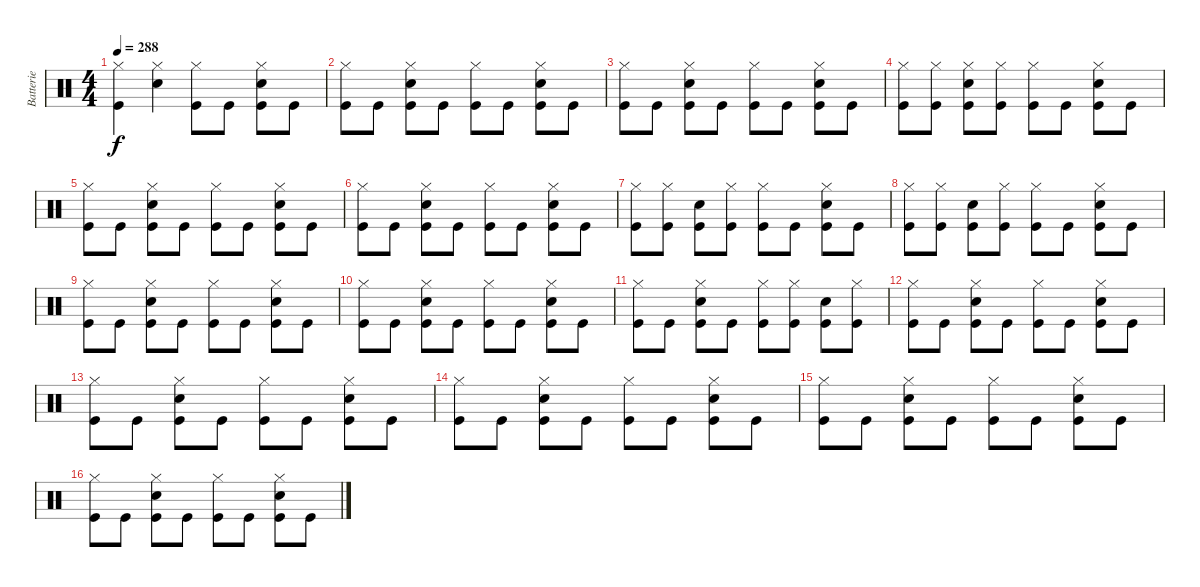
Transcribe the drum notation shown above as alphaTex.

\track ("Batterie" "Batterie") {instrument percussion}
\staff {score}
\articulation defaults
\ts (4 4)
\tempo 288
\clef neutral
\ks c
("Hi-Hat (closed)" "Kick (hit)").4{dy f} ("Hi-Hat (closed)" "Snare (hit) 2").4 ("Hi-Hat (closed)" "Kick (hit)").8 "Kick (hit)".8 ("Hi-Hat (closed)" "Snare (hit) 2" "Kick (hit)").8 "Kick (hit)".8 |
("Hi-Hat (closed)" "Kick (hit)").8 "Kick (hit)".8 ("Hi-Hat (closed)" "Snare (hit) 2" "Kick (hit)").8 "Kick (hit)".8 ("Hi-Hat (closed)" "Kick (hit)").8 "Kick (hit)".8 ("Hi-Hat (closed)" "Snare (hit) 2" "Kick (hit)").8 "Kick (hit)".8 |
("Hi-Hat (closed)" "Kick (hit)").8 "Kick (hit)".8 ("Hi-Hat (closed)" "Snare (hit) 2" "Kick (hit)").8 "Kick (hit)".8 ("Hi-Hat (closed)" "Kick (hit)").8 "Kick (hit)".8 ("Hi-Hat (closed)" "Snare (hit) 2" "Kick (hit)").8 "Kick (hit)".8 |
("Hi-Hat (closed)" "Kick (hit)").8 ("Hi-Hat (closed)" "Kick (hit)").8 ("Hi-Hat (closed)" "Snare (hit) 2" "Kick (hit)").8 ("Hi-Hat (closed)" "Kick (hit)").8 ("Hi-Hat (closed)" "Kick (hit)").8 "Kick (hit)".8 ("Hi-Hat (closed)" "Snare (hit) 2" "Kick (hit)").8 "Kick (hit)".8 |
("Hi-Hat (closed)" "Kick (hit)").8 "Kick (hit)".8 ("Hi-Hat (closed)" "Snare (hit) 2" "Kick (hit)").8 "Kick (hit)".8 ("Hi-Hat (closed)" "Kick (hit)").8 "Kick (hit)".8 ("Hi-Hat (closed)" "Snare (hit) 2" "Kick (hit)").8 "Kick (hit)".8 |
("Hi-Hat (closed)" "Kick (hit)").8 "Kick (hit)".8 ("Hi-Hat (closed)" "Snare (hit) 2" "Kick (hit)").8 "Kick (hit)".8 ("Hi-Hat (closed)" "Kick (hit)").8 "Kick (hit)".8 ("Hi-Hat (closed)" "Snare (hit) 2" "Kick (hit)").8 "Kick (hit)".8 |
("Hi-Hat (closed)" "Kick (hit)").8 ("Hi-Hat (closed)" "Kick (hit)").8 ("Snare (hit) 2" "Kick (hit)").8 ("Hi-Hat (closed)" "Kick (hit)").8 ("Hi-Hat (closed)" "Kick (hit)").8 "Kick (hit)".8 ("Hi-Hat (closed)" "Snare (hit) 2" "Kick (hit)").8 "Kick (hit)".8 |
("Hi-Hat (closed)" "Kick (hit)").8 ("Hi-Hat (closed)" "Kick (hit)").8 ("Snare (hit) 2" "Kick (hit)").8 ("Hi-Hat (closed)" "Kick (hit)").8 ("Hi-Hat (closed)" "Kick (hit)").8 "Kick (hit)".8 ("Hi-Hat (closed)" "Snare (hit) 2" "Kick (hit)").8 "Kick (hit)".8 |
("Hi-Hat (closed)" "Kick (hit)").8 "Kick (hit)".8 ("Hi-Hat (closed)" "Snare (hit) 2" "Kick (hit)").8 "Kick (hit)".8 ("Hi-Hat (closed)" "Kick (hit)").8 "Kick (hit)".8 ("Hi-Hat (closed)" "Snare (hit) 2" "Kick (hit)").8 "Kick (hit)".8 |
("Hi-Hat (closed)" "Kick (hit)").8 "Kick (hit)".8 ("Hi-Hat (closed)" "Snare (hit) 2" "Kick (hit)").8 "Kick (hit)".8 ("Hi-Hat (closed)" "Kick (hit)").8 "Kick (hit)".8 ("Hi-Hat (closed)" "Snare (hit) 2" "Kick (hit)").8 "Kick (hit)".8 |
("Hi-Hat (closed)" "Kick (hit)").8 "Kick (hit)".8 ("Hi-Hat (closed)" "Snare (hit) 2" "Kick (hit)").8 "Kick (hit)".8 ("Hi-Hat (closed)" "Kick (hit)").8 ("Hi-Hat (closed)" "Kick (hit)").8 ("Snare (hit) 2" "Kick (hit)").8 ("Hi-Hat (closed)" "Kick (hit)").8 |
("Hi-Hat (closed)" "Kick (hit)").8 "Kick (hit)".8 ("Hi-Hat (closed)" "Snare (hit) 2" "Kick (hit)").8 "Kick (hit)".8 ("Hi-Hat (closed)" "Kick (hit)").8 "Kick (hit)".8 ("Hi-Hat (closed)" "Snare (hit) 2" "Kick (hit)").8 "Kick (hit)".8 |
("Hi-Hat (closed)" "Kick (hit)").8 "Kick (hit)".8 ("Hi-Hat (closed)" "Snare (hit) 2" "Kick (hit)").8 "Kick (hit)".8 ("Hi-Hat (closed)" "Kick (hit)").8 "Kick (hit)".8 ("Hi-Hat (closed)" "Snare (hit) 2" "Kick (hit)").8 "Kick (hit)".8 |
("Hi-Hat (closed)" "Kick (hit)").8 "Kick (hit)".8 ("Hi-Hat (closed)" "Snare (hit) 2" "Kick (hit)").8 "Kick (hit)".8 ("Hi-Hat (closed)" "Kick (hit)").8 "Kick (hit)".8 ("Hi-Hat (closed)" "Snare (hit) 2" "Kick (hit)").8 "Kick (hit)".8 |
("Hi-Hat (closed)" "Kick (hit)").8 "Kick (hit)".8 ("Hi-Hat (closed)" "Snare (hit) 2" "Kick (hit)").8 "Kick (hit)".8 ("Hi-Hat (closed)" "Kick (hit)").8 "Kick (hit)".8 ("Hi-Hat (closed)" "Snare (hit) 2" "Kick (hit)").8 "Kick (hit)".8 |
("Hi-Hat (closed)" "Kick (hit)").8 "Kick (hit)".8 ("Hi-Hat (closed)" "Snare (hit) 2" "Kick (hit)").8 "Kick (hit)".8 ("Hi-Hat (closed)" "Kick (hit)").8 "Kick (hit)".8 ("Hi-Hat (closed)" "Snare (hit) 2" "Kick (hit)").8 "Kick (hit)".8
